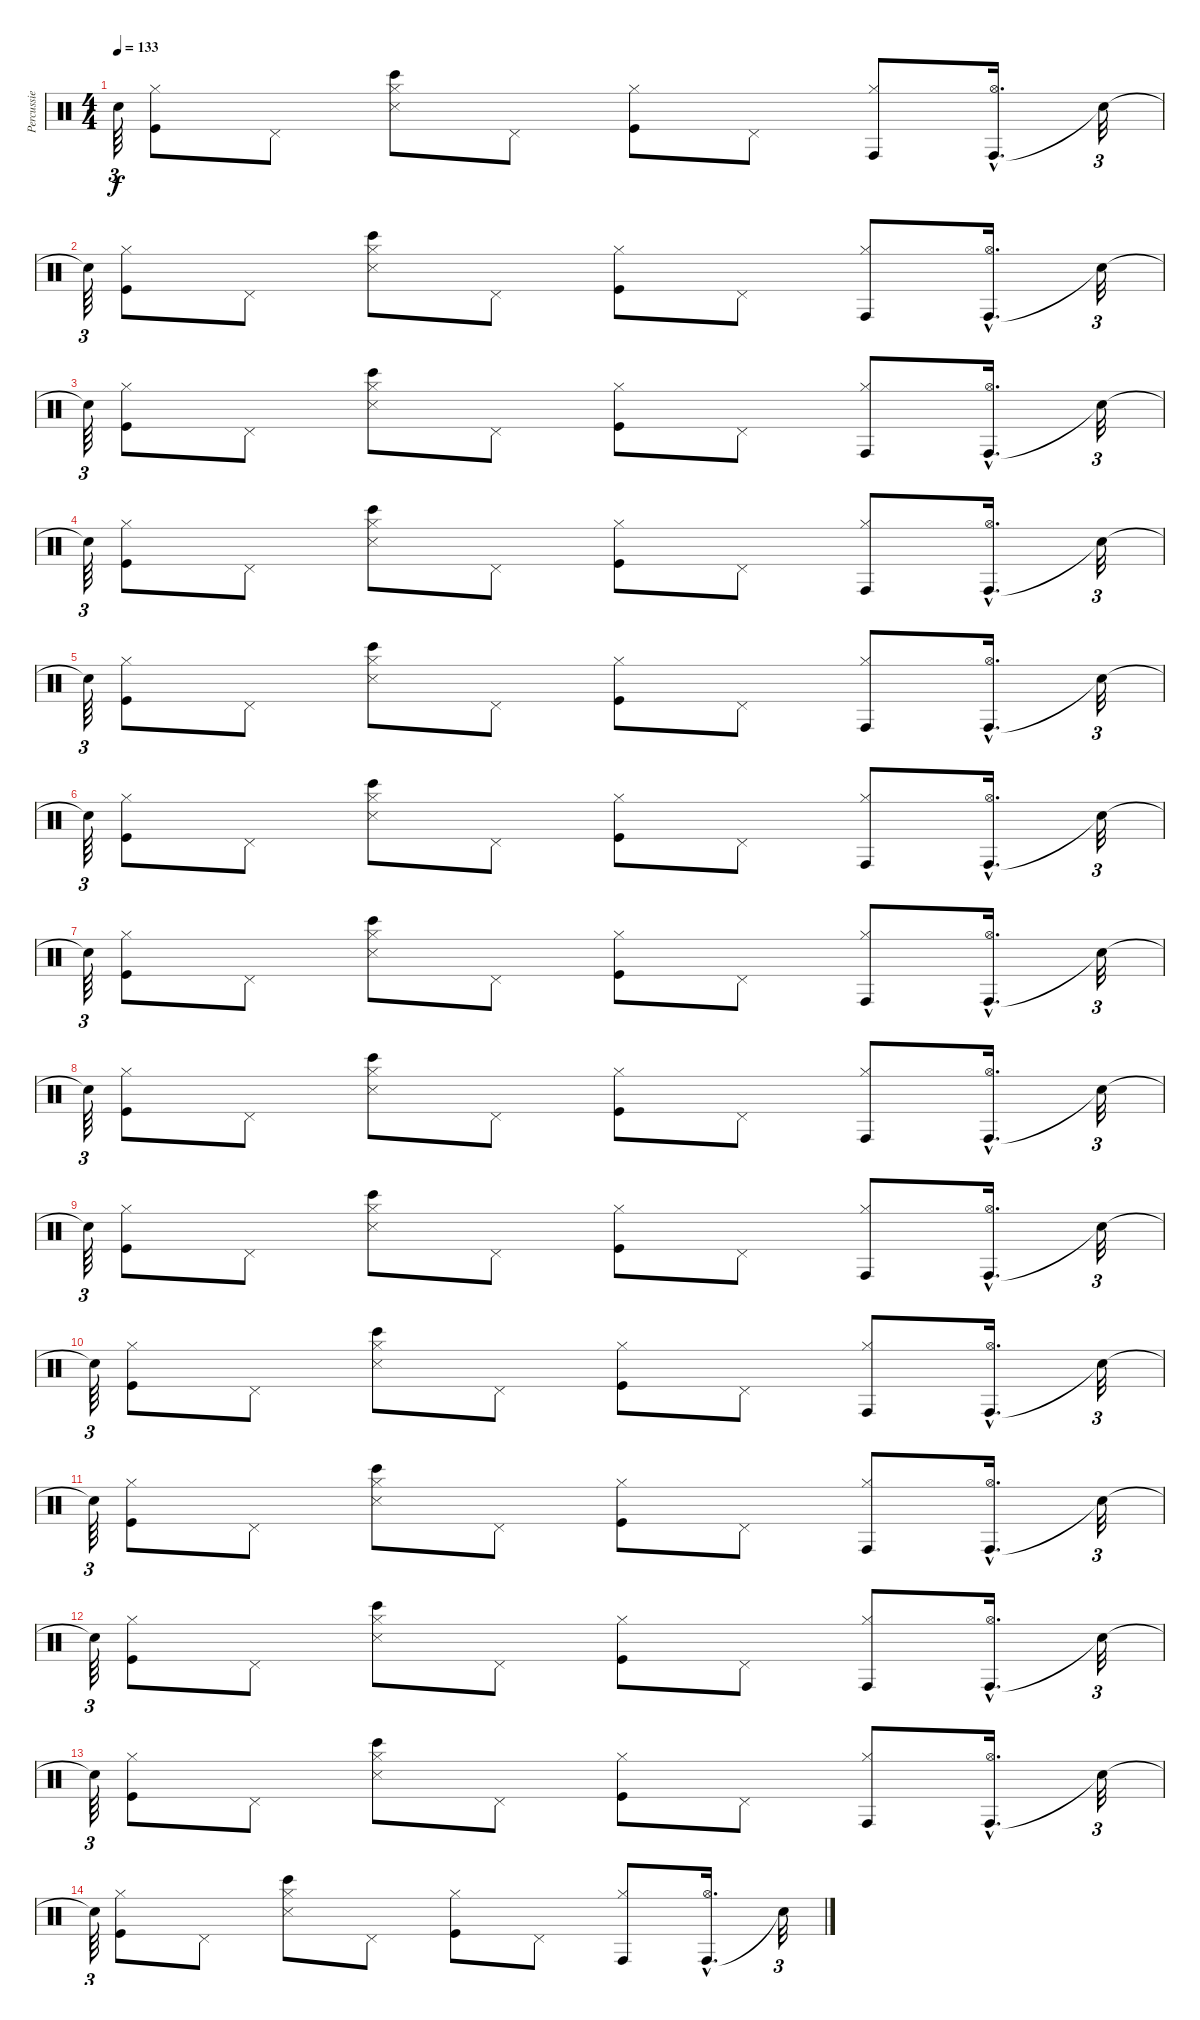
\track ("Percussie" "Percussie") {instrument percussion}
\staff {score}
\articulation defaults
\ts (4 4)
\tempo 133
\clef neutral
\ks c "Snare (hit)"{t}.64{tu (3 2) dy f}
("Kick (hit)" "Hi-Hat (closed)").8 "Pedal Hi-Hat (hit)".8 ("Bongo High (hit)" "Snare (side stick) 3" "Hi-Hat (closed)").8 "Pedal Hi-Hat (hit)".8 ("Kick (hit)" "Hi-Hat (closed)").8 "Pedal Hi-Hat (hit)".8 ("Conga high (hit)" "Hi-Hat (closed)").8 ("Conga high (hit)"{hac} "Hi-Hat (open)"{hac}).16{d} "Snare (hit)"{t}.32{tu (3 2)} |
"Snare (hit)"{t}.64{tu (3 2)} ("Kick (hit)" "Hi-Hat (closed)").8 "Pedal Hi-Hat (hit)".8 ("Bongo High (hit)" "Snare (side stick) 3" "Hi-Hat (closed)").8 "Pedal Hi-Hat (hit)".8 ("Kick (hit)" "Hi-Hat (closed)").8 "Pedal Hi-Hat (hit)".8 ("Conga high (hit)" "Hi-Hat (closed)").8 ("Conga high (hit)"{hac} "Hi-Hat (open)"{hac}).16{d} "Snare (hit)"{t}.32{tu (3 2)} |
"Snare (hit)"{t}.64{tu (3 2)} ("Kick (hit)" "Hi-Hat (closed)").8 "Pedal Hi-Hat (hit)".8 ("Bongo High (hit)" "Snare (side stick) 3" "Hi-Hat (closed)").8 "Pedal Hi-Hat (hit)".8 ("Kick (hit)" "Hi-Hat (closed)").8 "Pedal Hi-Hat (hit)".8 ("Conga high (hit)" "Hi-Hat (closed)").8 ("Conga high (hit)"{hac} "Hi-Hat (open)"{hac}).16{d} "Snare (hit)"{t}.32{tu (3 2)} |
"Snare (hit)"{t}.64{tu (3 2)} ("Kick (hit)" "Hi-Hat (closed)").8 "Pedal Hi-Hat (hit)".8 ("Bongo High (hit)" "Snare (side stick) 3" "Hi-Hat (closed)").8 "Pedal Hi-Hat (hit)".8 ("Kick (hit)" "Hi-Hat (closed)").8 "Pedal Hi-Hat (hit)".8 ("Conga high (hit)" "Hi-Hat (closed)").8 ("Conga high (hit)"{hac} "Hi-Hat (open)"{hac}).16{d} "Snare (hit)"{t}.32{tu (3 2)} |
"Snare (hit)"{t}.64{tu (3 2)} ("Kick (hit)" "Hi-Hat (closed)").8 "Pedal Hi-Hat (hit)".8 ("Bongo High (hit)" "Snare (side stick) 3" "Hi-Hat (closed)").8 "Pedal Hi-Hat (hit)".8 ("Kick (hit)" "Hi-Hat (closed)").8 "Pedal Hi-Hat (hit)".8 ("Conga high (hit)" "Hi-Hat (closed)").8 ("Conga high (hit)"{hac} "Hi-Hat (open)"{hac}).16{d} "Snare (hit)"{t}.32{tu (3 2)} |
"Snare (hit)"{t}.64{tu (3 2)} ("Kick (hit)" "Hi-Hat (closed)").8 "Pedal Hi-Hat (hit)".8 ("Bongo High (hit)" "Snare (side stick) 3" "Hi-Hat (closed)").8 "Pedal Hi-Hat (hit)".8 ("Kick (hit)" "Hi-Hat (closed)").8 "Pedal Hi-Hat (hit)".8 ("Conga high (hit)" "Hi-Hat (closed)").8 ("Conga high (hit)"{hac} "Hi-Hat (open)"{hac}).16{d} "Snare (hit)"{t}.32{tu (3 2)} |
"Snare (hit)"{t}.64{tu (3 2)} ("Kick (hit)" "Hi-Hat (closed)").8 "Pedal Hi-Hat (hit)".8 ("Bongo High (hit)" "Snare (side stick) 3" "Hi-Hat (closed)").8 "Pedal Hi-Hat (hit)".8 ("Kick (hit)" "Hi-Hat (closed)").8 "Pedal Hi-Hat (hit)".8 ("Conga high (hit)" "Hi-Hat (closed)").8 ("Conga high (hit)"{hac} "Hi-Hat (open)"{hac}).16{d} "Snare (hit)"{t}.32{tu (3 2)} |
"Snare (hit)"{t}.64{tu (3 2)} ("Kick (hit)" "Hi-Hat (closed)").8 "Pedal Hi-Hat (hit)".8 ("Bongo High (hit)" "Snare (side stick) 3" "Hi-Hat (closed)").8 "Pedal Hi-Hat (hit)".8 ("Kick (hit)" "Hi-Hat (closed)").8 "Pedal Hi-Hat (hit)".8 ("Conga high (hit)" "Hi-Hat (closed)").8 ("Conga high (hit)"{hac} "Hi-Hat (open)"{hac}).16{d} "Snare (hit)"{t}.32{tu (3 2)} |
"Snare (hit)"{t}.64{tu (3 2)} ("Kick (hit)" "Hi-Hat (closed)").8 "Pedal Hi-Hat (hit)".8 ("Bongo High (hit)" "Snare (side stick) 3" "Hi-Hat (closed)").8 "Pedal Hi-Hat (hit)".8 ("Kick (hit)" "Hi-Hat (closed)").8 "Pedal Hi-Hat (hit)".8 ("Conga high (hit)" "Hi-Hat (closed)").8 ("Conga high (hit)"{hac} "Hi-Hat (open)"{hac}).16{d} "Snare (hit)"{t}.32{tu (3 2)} |
"Snare (hit)"{t}.64{tu (3 2)} ("Kick (hit)" "Hi-Hat (closed)").8 "Pedal Hi-Hat (hit)".8 ("Bongo High (hit)" "Snare (side stick) 3" "Hi-Hat (closed)").8 "Pedal Hi-Hat (hit)".8 ("Kick (hit)" "Hi-Hat (closed)").8 "Pedal Hi-Hat (hit)".8 ("Conga high (hit)" "Hi-Hat (closed)").8 ("Conga high (hit)"{hac} "Hi-Hat (open)"{hac}).16{d} "Snare (hit)"{t}.32{tu (3 2)} |
"Snare (hit)"{t}.64{tu (3 2)} ("Kick (hit)" "Hi-Hat (closed)").8 "Pedal Hi-Hat (hit)".8 ("Bongo High (hit)" "Snare (side stick) 3" "Hi-Hat (closed)").8 "Pedal Hi-Hat (hit)".8 ("Kick (hit)" "Hi-Hat (closed)").8 "Pedal Hi-Hat (hit)".8 ("Conga high (hit)" "Hi-Hat (closed)").8 ("Conga high (hit)"{hac} "Hi-Hat (open)"{hac}).16{d} "Snare (hit)"{t}.32{tu (3 2)} |
"Snare (hit)"{t}.64{tu (3 2)} ("Kick (hit)" "Hi-Hat (closed)").8 "Pedal Hi-Hat (hit)".8 ("Bongo High (hit)" "Snare (side stick) 3" "Hi-Hat (closed)").8 "Pedal Hi-Hat (hit)".8 ("Kick (hit)" "Hi-Hat (closed)").8 "Pedal Hi-Hat (hit)".8 ("Conga high (hit)" "Hi-Hat (closed)").8 ("Conga high (hit)"{hac} "Hi-Hat (open)"{hac}).16{d} "Snare (hit)"{t}.32{tu (3 2)} |
"Snare (hit)"{t}.64{tu (3 2)} ("Kick (hit)" "Hi-Hat (closed)").8 "Pedal Hi-Hat (hit)".8 ("Bongo High (hit)" "Snare (side stick) 3" "Hi-Hat (closed)").8 "Pedal Hi-Hat (hit)".8 ("Kick (hit)" "Hi-Hat (closed)").8 "Pedal Hi-Hat (hit)".8 ("Conga high (hit)" "Hi-Hat (closed)").8 ("Conga high (hit)"{hac} "Hi-Hat (open)"{hac}).16{d} "Snare (hit)"{t}.32{tu (3 2)} |
"Snare (hit)"{t}.64{tu (3 2)} ("Kick (hit)" "Hi-Hat (closed)").8 "Pedal Hi-Hat (hit)".8 ("Bongo High (hit)" "Snare (side stick) 3" "Hi-Hat (closed)").8 "Pedal Hi-Hat (hit)".8 ("Kick (hit)" "Hi-Hat (closed)").8 "Pedal Hi-Hat (hit)".8 ("Conga high (hit)" "Hi-Hat (closed)").8 ("Conga high (hit)"{hac} "Hi-Hat (open)"{hac}).16{d} "Snare (hit)"{t}.32{tu (3 2)}
